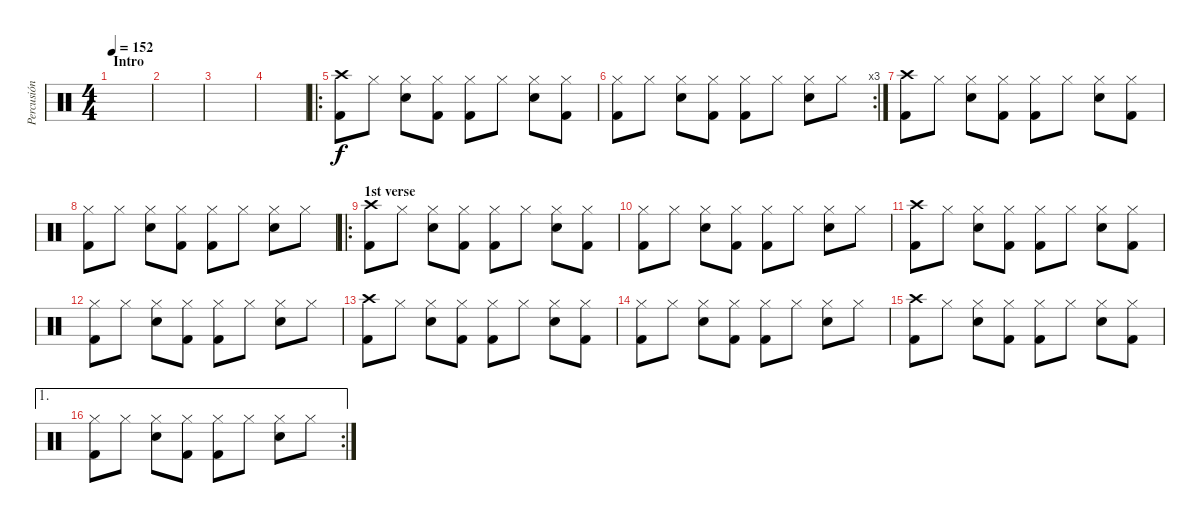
\track ("Percusión" "Percusión") {instrument percussion}
\staff {score}
\articulation defaults
\ts (4 4)
\section ("" "Intro")
\tempo 152
\clef neutral
\ks c
|
|
|
|
\ro
("Kick (hit) 2" "Crash high (hit)").8 "Hi-Hat (closed)".8 ("Hi-Hat (closed)" "Electric Snare (hit)").8 ("Kick (hit) 2" "Hi-Hat (closed)").8 ("Kick (hit) 2" "Hi-Hat (closed)").8 "Hi-Hat (closed)".8 ("Hi-Hat (closed)" "Electric Snare (hit)").8 ("Kick (hit) 2" "Hi-Hat (closed)").8 |
\rc 3
("Kick (hit) 2" "Hi-Hat (closed)").8 "Hi-Hat (closed)".8 ("Hi-Hat (closed)" "Electric Snare (hit)").8 ("Kick (hit) 2" "Hi-Hat (closed)").8 ("Kick (hit) 2" "Hi-Hat (closed)").8 "Hi-Hat (closed)".8 ("Hi-Hat (closed)" "Electric Snare (hit)").8 "Hi-Hat (closed)".8 |
("Kick (hit) 2" "Crash high (hit)").8 "Hi-Hat (closed)".8 ("Hi-Hat (closed)" "Electric Snare (hit)").8 ("Kick (hit) 2" "Hi-Hat (closed)").8 ("Kick (hit) 2" "Hi-Hat (closed)").8 "Hi-Hat (closed)".8 ("Hi-Hat (closed)" "Electric Snare (hit)").8 ("Kick (hit) 2" "Hi-Hat (closed)").8 |
("Kick (hit) 2" "Hi-Hat (closed)").8 "Hi-Hat (closed)".8 ("Hi-Hat (closed)" "Electric Snare (hit)").8 ("Kick (hit) 2" "Hi-Hat (closed)").8 ("Kick (hit) 2" "Hi-Hat (closed)").8 "Hi-Hat (closed)".8 ("Hi-Hat (closed)" "Electric Snare (hit)").8 "Hi-Hat (closed)".8 |
\ro
\section ("" "1st verse")
("Kick (hit) 2" "Crash high (hit)").8 "Hi-Hat (closed)".8 ("Hi-Hat (closed)" "Electric Snare (hit)").8 ("Kick (hit) 2" "Hi-Hat (closed)").8 ("Kick (hit) 2" "Hi-Hat (closed)").8 "Hi-Hat (closed)".8 ("Hi-Hat (closed)" "Electric Snare (hit)").8 ("Kick (hit) 2" "Hi-Hat (closed)").8 |
("Kick (hit) 2" "Hi-Hat (closed)").8 "Hi-Hat (closed)".8 ("Hi-Hat (closed)" "Electric Snare (hit)").8 ("Kick (hit) 2" "Hi-Hat (closed)").8 ("Kick (hit) 2" "Hi-Hat (closed)").8 "Hi-Hat (closed)".8 ("Hi-Hat (closed)" "Electric Snare (hit)").8 "Hi-Hat (closed)".8 |
("Kick (hit) 2" "Crash high (hit)").8 "Hi-Hat (closed)".8 ("Hi-Hat (closed)" "Electric Snare (hit)").8 ("Kick (hit) 2" "Hi-Hat (closed)").8 ("Kick (hit) 2" "Hi-Hat (closed)").8 "Hi-Hat (closed)".8 ("Hi-Hat (closed)" "Electric Snare (hit)").8 ("Kick (hit) 2" "Hi-Hat (closed)").8 |
("Kick (hit) 2" "Hi-Hat (closed)").8 "Hi-Hat (closed)".8 ("Hi-Hat (closed)" "Electric Snare (hit)").8 ("Kick (hit) 2" "Hi-Hat (closed)").8 ("Kick (hit) 2" "Hi-Hat (closed)").8 "Hi-Hat (closed)".8 ("Hi-Hat (closed)" "Electric Snare (hit)").8 "Hi-Hat (closed)".8 |
("Kick (hit) 2" "Crash high (hit)").8 "Hi-Hat (closed)".8 ("Hi-Hat (closed)" "Electric Snare (hit)").8 ("Kick (hit) 2" "Hi-Hat (closed)").8 ("Kick (hit) 2" "Hi-Hat (closed)").8 "Hi-Hat (closed)".8 ("Hi-Hat (closed)" "Electric Snare (hit)").8 ("Kick (hit) 2" "Hi-Hat (closed)").8 |
("Kick (hit) 2" "Hi-Hat (closed)").8 "Hi-Hat (closed)".8 ("Hi-Hat (closed)" "Electric Snare (hit)").8 ("Kick (hit) 2" "Hi-Hat (closed)").8 ("Kick (hit) 2" "Hi-Hat (closed)").8 "Hi-Hat (closed)".8 ("Hi-Hat (closed)" "Electric Snare (hit)").8 "Hi-Hat (closed)".8 |
("Kick (hit) 2" "Crash high (hit)").8 "Hi-Hat (closed)".8 ("Hi-Hat (closed)" "Electric Snare (hit)").8 ("Kick (hit) 2" "Hi-Hat (closed)").8 ("Kick (hit) 2" "Hi-Hat (closed)").8 "Hi-Hat (closed)".8 ("Hi-Hat (closed)" "Electric Snare (hit)").8 ("Kick (hit) 2" "Hi-Hat (closed)").8 |
\ae 1
\rc 2
("Kick (hit) 2" "Hi-Hat (closed)").8 "Hi-Hat (closed)".8 ("Hi-Hat (closed)" "Electric Snare (hit)").8 ("Kick (hit) 2" "Hi-Hat (closed)").8 ("Kick (hit) 2" "Hi-Hat (closed)").8 "Hi-Hat (closed)".8 ("Hi-Hat (closed)" "Electric Snare (hit)").8 "Hi-Hat (closed)".8
